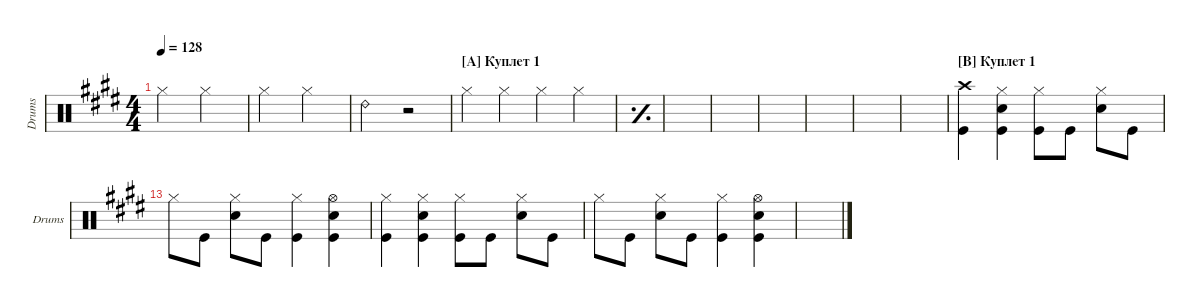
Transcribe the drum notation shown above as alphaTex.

\defaultSystemsLayout 4
\hideDynamics
\bracketExtendMode groupsimilarinstruments
\singleTrackTrackNamePolicy allsystems
\multiTrackTrackNamePolicy allsystems
\otherSystemsTrackNameOrientation horizontal
\defaultBarNumberDisplay FirstOfSystem
\track ("Drumkit" "Drums") {instrument percussion}
\staff {score}
\articulation defaults
\ts (4 4)
\tempo 128
\clef neutral
\ks e "Hi-Hat (closed)".2{dy mf} "Hi-Hat (closed)".2
|
"Hi-Hat (closed)".2 "Hi-Hat (closed)".2 |
"Ride (bell) 2".2 r.2 |
\section ("A" "Куплет 1")
"Hi-Hat (closed)".4 "Hi-Hat (closed)".4 "Hi-Hat (closed)".4 "Hi-Hat (closed)".4 |
\simile simple
|
|
|
|
|
|
|
\section ("B" "Куплет 1")
\simile none
("Kick (hit)" "Crash high (hit)").4 ("Hi-Hat (closed)" "Kick (hit)" "Snare (hit) 2").4 ("Hi-Hat (closed)" "Kick (hit)").8 "Kick (hit)".8 ("Hi-Hat (closed)" "Snare (hit) 2").8 "Kick (hit)".8 |
"Hi-Hat (closed)".8 "Kick (hit)".8 ("Hi-Hat (closed)" "Snare (hit) 2").8 "Kick (hit)".8 ("Hi-Hat (closed)" "Kick (hit)").4 ("Hi-Hat (open)" "Kick (hit)" "Snare (hit) 2").4 |
("Kick (hit)" "Hi-Hat (closed)").4 ("Hi-Hat (closed)" "Kick (hit)" "Snare (hit) 2").4 ("Hi-Hat (closed)" "Kick (hit)").8 "Kick (hit)".8 ("Hi-Hat (closed)" "Snare (hit) 2").8 "Kick (hit)".8 |
"Hi-Hat (closed)".8 "Kick (hit)".8 ("Hi-Hat (closed)" "Snare (hit) 2").8 "Kick (hit)".8 ("Hi-Hat (closed)" "Kick (hit)").4 ("Hi-Hat (open)" "Kick (hit)" "Snare (hit) 2").4 |
\simile firstofdouble
